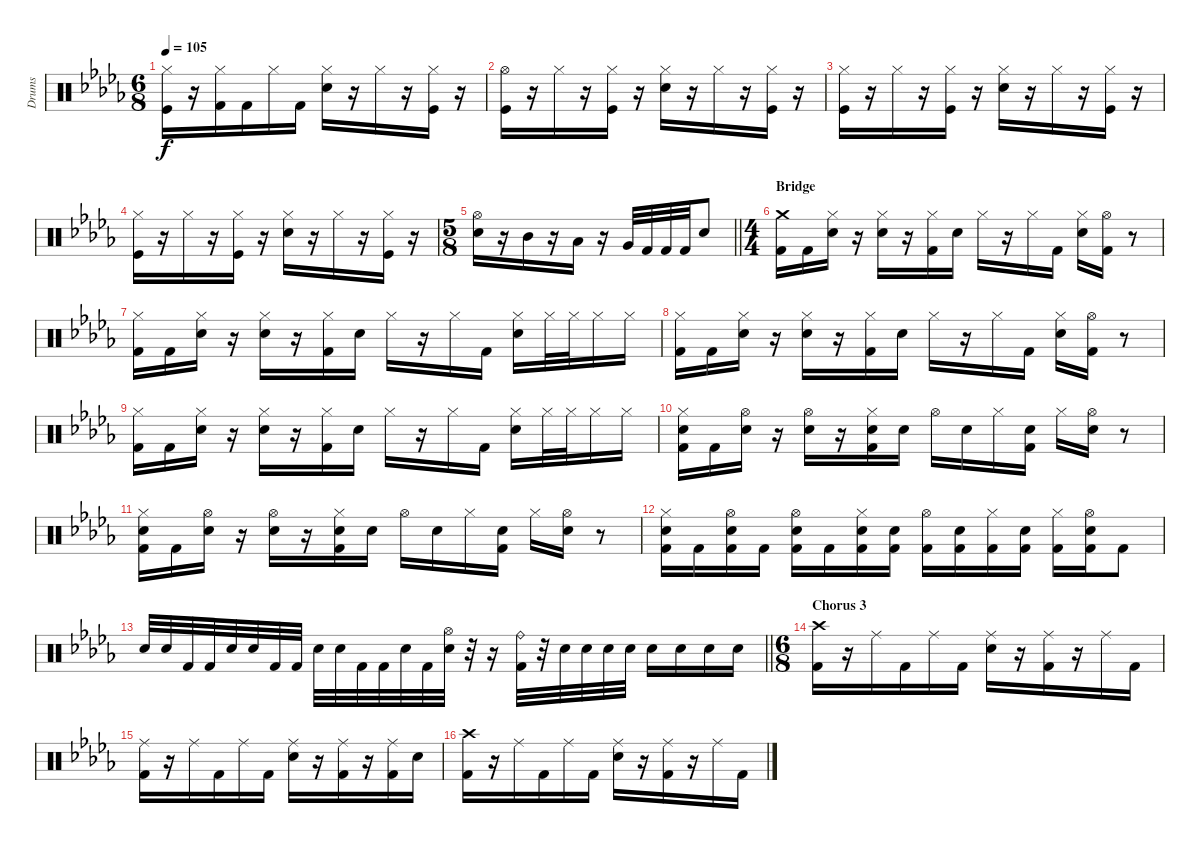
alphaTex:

\track ("Drums" "Drums") {instrument percussion}
\staff {score}
\articulation defaults
\ts (6 8)
\tempo 105
\clef neutral
\ks db
("Hi-Hat (closed)" "Kick (hit)").16{dy f} r.16 ("Hi-Hat (closed)" "Kick (hit) 2").16 "Kick (hit) 2".16 "Hi-Hat (closed)".16 "Kick (hit) 2".16 ("Hi-Hat (closed)" "Snare (hit) 2").16 r.16 "Hi-Hat (closed)".16 r.16 ("Hi-Hat (closed)" "Kick (hit)").16 r.16 |
("Hi-Hat (open)" "Kick (hit)").16 r.16 "Hi-Hat (closed)".16 r.16 ("Hi-Hat (closed)" "Kick (hit)").16 r.16 ("Hi-Hat (closed)" "Snare (hit) 2").16 r.16 "Hi-Hat (closed)".16 r.16 ("Hi-Hat (closed)" "Kick (hit)").16 r.16 |
("Hi-Hat (closed)" "Kick (hit)").16 r.16 "Hi-Hat (closed)".16 r.16 ("Hi-Hat (closed)" "Kick (hit)").16 r.16 ("Hi-Hat (closed)" "Snare (hit) 2").16 r.16 "Hi-Hat (closed)".16 r.16 ("Hi-Hat (closed)" "Kick (hit)").16 r.16 |
("Hi-Hat (closed)" "Kick (hit)").16 r.16 "Hi-Hat (closed)".16 r.16 ("Hi-Hat (closed)" "Kick (hit)").16 r.16 ("Hi-Hat (closed)" "Snare (hit) 2").16 r.16 "Hi-Hat (closed)".16 r.16 ("Hi-Hat (closed)" "Kick (hit)").16 r.16 |
\ts (5 8)
\barLineRight lightlight
("Hi-Hat (open)" "Snare (hit) 2").16 r.16 "Mid Tom (hit)".16 r.16 "Low Tom (hit)".16 r.16 "Very Low Tom (hit)".32 "Kick (hit) 2".32 "Kick (hit) 2".32 "Kick (hit) 2".32 "Snare (hit) 2".8 |
\ts (4 4)
\section ("" "Bridge")
("Crash medium (hit)" "Kick (hit) 2").16 "Kick (hit) 2".16 ("Hi-Hat (closed)" "Snare (hit) 2").16 r.16 ("Hi-Hat (closed)" "Snare (hit) 2").16 r.16 ("Hi-Hat (closed)" "Kick (hit) 2").16 "Snare (hit) 2".16 "Hi-Hat (closed)".16 r.16 "Hi-Hat (closed)".16 "Kick (hit) 2".16 ("Hi-Hat (closed)" "Snare (hit) 2").16 ("Hi-Hat (open)" "Kick (hit) 2").16 r.8 |
("Hi-Hat (closed)" "Kick (hit) 2").16 "Kick (hit) 2".16 ("Hi-Hat (closed)" "Snare (hit) 2").16 r.16 ("Hi-Hat (closed)" "Snare (hit) 2").16 r.16 ("Hi-Hat (closed)" "Kick (hit) 2").16 "Snare (hit) 2".16 "Hi-Hat (closed)".16 r.16 "Hi-Hat (closed)".16 "Kick (hit) 2".16 ("Hi-Hat (closed)" "Snare (hit) 2").16 "Hi-Hat (closed)".32 "Hi-Hat (closed)".32 "Hi-Hat (closed)".16 "Hi-Hat (closed)".16 |
("Hi-Hat (closed)" "Kick (hit) 2").16 "Kick (hit) 2".16 ("Hi-Hat (closed)" "Snare (hit) 2").16 r.16 ("Hi-Hat (closed)" "Snare (hit) 2").16 r.16 ("Hi-Hat (closed)" "Kick (hit) 2").16 "Snare (hit) 2".16 "Hi-Hat (closed)".16 r.16 "Hi-Hat (closed)".16 "Kick (hit) 2".16 ("Hi-Hat (closed)" "Snare (hit) 2").16 ("Hi-Hat (open)" "Kick (hit) 2").16 r.8 |
("Hi-Hat (closed)" "Kick (hit) 2").16 "Kick (hit) 2".16 ("Hi-Hat (closed)" "Snare (hit) 2").16 r.16 ("Hi-Hat (closed)" "Snare (hit) 2").16 r.16 ("Hi-Hat (closed)" "Kick (hit) 2").16 "Snare (hit) 2".16 "Hi-Hat (closed)".16 r.16 "Hi-Hat (closed)".16 "Kick (hit) 2".16 ("Hi-Hat (closed)" "Snare (hit) 2").16 "Hi-Hat (closed)".32 "Hi-Hat (closed)".32 "Hi-Hat (closed)".16 "Hi-Hat (closed)".16 |
("Hi-Hat (closed)" "Kick (hit) 2" "Snare (hit) 2").16 "Kick (hit) 2".16 ("Hi-Hat (open)" "Snare (hit) 2").16 r.16 ("Hi-Hat (open)" "Snare (hit) 2").16 r.16 ("Hi-Hat (closed)" "Kick (hit) 2" "Snare (hit) 2").16 "Snare (hit) 2".16 "Hi-Hat (open)".16 "Snare (hit) 2".16 "Hi-Hat (closed)".16 ("Kick (hit) 2" "Snare (hit) 2").16 "Hi-Hat (closed)".16 ("Hi-Hat (open)" "Snare (hit) 2").16 r.8 |
("Hi-Hat (closed)" "Kick (hit) 2" "Snare (hit) 2").16 "Kick (hit) 2".16 ("Hi-Hat (open)" "Snare (hit) 2").16 r.16 ("Hi-Hat (open)" "Snare (hit) 2").16 r.16 ("Hi-Hat (closed)" "Kick (hit) 2" "Snare (hit) 2").16 "Snare (hit) 2".16 "Hi-Hat (open)".16 "Snare (hit) 2".16 "Hi-Hat (closed)".16 ("Kick (hit) 2" "Snare (hit) 2").16 "Hi-Hat (closed)".16 ("Hi-Hat (open)" "Snare (hit) 2").16 r.8 |
("Hi-Hat (closed)" "Kick (hit) 2" "Snare (hit) 2").16 "Kick (hit) 2".16 ("Hi-Hat (open)" "Snare (hit) 2" "Kick (hit) 2").16 "Kick (hit) 2".16 ("Hi-Hat (open)" "Snare (hit) 2" "Kick (hit) 2").16 "Kick (hit) 2".16 ("Hi-Hat (closed)" "Kick (hit) 2" "Snare (hit) 2").16 ("Snare (hit) 2" "Kick (hit) 2").16 ("Hi-Hat (open)" "Kick (hit) 2").16 ("Snare (hit) 2" "Kick (hit) 2").16 ("Hi-Hat (closed)" "Kick (hit) 2").16 ("Kick (hit) 2" "Snare (hit) 2").16 ("Hi-Hat (closed)" "Kick (hit) 2").16 ("Hi-Hat (open)" "Snare (hit) 2" "Kick (hit) 2").16 "Kick (hit) 2".8 |
\barLineRight lightlight "Snare (hit) 2".32 "Snare (hit) 2".32 "Kick (hit) 2".32 "Kick (hit) 2".32 "Snare (hit) 2".32 "Snare (hit) 2".32 "Kick (hit) 2".32 "Kick (hit) 2".32 "Snare (hit) 2".32 "Snare (hit) 2".32 "Kick (hit) 2".32 "Kick (hit) 2".32 "Snare (hit) 2".32 "Kick (hit) 2".32
("Snare (hit) 2" "Hi-Hat (open)").32 r.32 r.16 ("Ride (bell)" "Kick (hit) 2").32 r.32 "Snare (hit) 2".32 "Snare (hit) 2".32 "Snare (hit) 2".32 "Snare (hit) 2".32 "Snare (hit) 2".16 "Snare (hit) 2".16 "Snare (hit) 2".16 "Snare (hit) 2".16 |
\ts (6 8)
\section ("" "Chorus 3")
("Crash high (hit)" "Kick (hit) 2").16 r.16 "Ride (middle)".16 "Kick (hit) 2".16 "Ride (middle)".16 "Kick (hit) 2".16 ("Ride (middle)" "Snare (hit) 2").16 r.16 ("Ride (middle)" "Kick (hit) 2").16 r.16 "Ride (middle)".16 "Kick (hit) 2".16 |
("Ride (middle)" "Kick (hit) 2").16 r.16 "Ride (middle)".16 "Kick (hit) 2".16 "Ride (middle)".16 "Kick (hit) 2".16 ("Ride (middle)" "Snare (hit) 2").16 r.16 ("Ride (middle)" "Kick (hit) 2").16 r.16 ("Ride (middle)" "Kick (hit) 2").16 "Snare (hit) 2".16 |
("Crash high (hit)" "Kick (hit) 2").16 r.16 "Ride (middle)".16 "Kick (hit) 2".16 "Ride (middle)".16 "Kick (hit) 2".16 ("Ride (middle)" "Snare (hit) 2").16 r.16 ("Ride (middle)" "Kick (hit) 2").16 r.16 "Ride (middle)".16 "Kick (hit) 2".16
